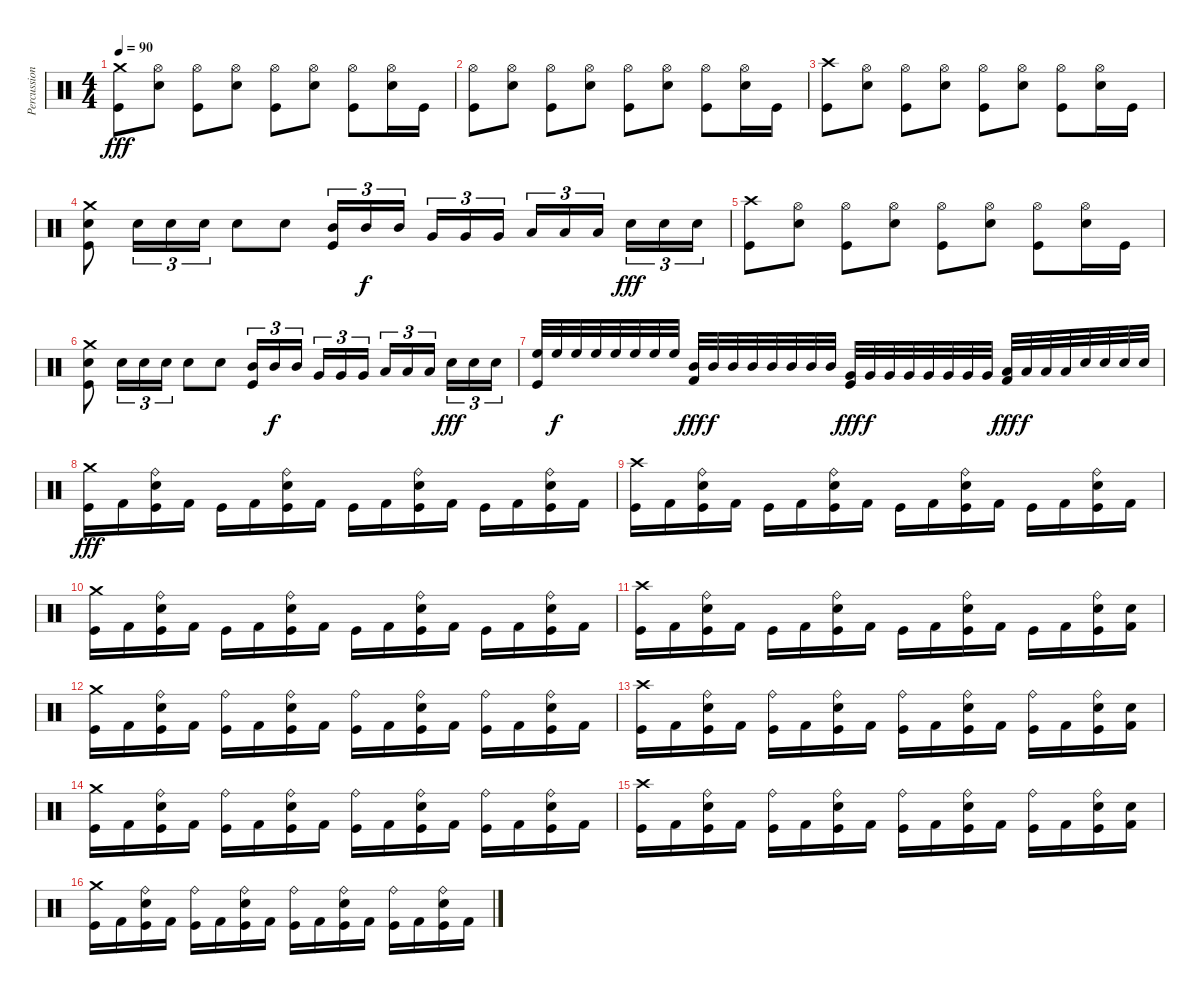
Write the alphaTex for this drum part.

\track ("Percussion" "Percussion") {instrument percussion}
\staff {score}
\articulation defaults
\ts (4 4)
\tempo 90
\clef neutral
\ks c
("Crash medium (hit)" "Kick (hit)").8{dy fff} ("Hi-Hat (open)" "Electric Snare (hit)").8 ("Hi-Hat (open)" "Kick (hit)").8 ("Hi-Hat (open)" "Electric Snare (hit)").8 ("Hi-Hat (open)" "Kick (hit)").8 ("Hi-Hat (open)" "Electric Snare (hit)").8 ("Hi-Hat (open)" "Kick (hit)").8 ("Hi-Hat (open)" "Electric Snare (hit)").16 "Kick (hit)".16 |
("Hi-Hat (open)" "Kick (hit)").8 ("Hi-Hat (open)" "Electric Snare (hit)").8 ("Hi-Hat (open)" "Kick (hit)").8 ("Hi-Hat (open)" "Electric Snare (hit)").8 ("Hi-Hat (open)" "Kick (hit)").8 ("Hi-Hat (open)" "Electric Snare (hit)").8 ("Hi-Hat (open)" "Kick (hit)").8 ("Hi-Hat (open)" "Electric Snare (hit)").16 "Kick (hit)".16 |
("Crash high (hit)" "Kick (hit)").8 ("Hi-Hat (open)" "Electric Snare (hit)").8 ("Hi-Hat (open)" "Kick (hit)").8 ("Hi-Hat (open)" "Electric Snare (hit)").8 ("Hi-Hat (open)" "Kick (hit)").8 ("Hi-Hat (open)" "Electric Snare (hit)").8 ("Hi-Hat (open)" "Kick (hit)").8 ("Hi-Hat (open)" "Electric Snare (hit)").16 "Kick (hit)".16 |
("Crash medium (hit)" "Electric Snare (hit)" "Kick (hit)").8 "Electric Snare (hit)".16{tu (3 2)} "Electric Snare (hit)".16{tu (3 2)} "Electric Snare (hit)".16{tu (3 2)} "Electric Snare (hit)".8 "Electric Snare (hit)".8 ("Mid Tom (hit)" "Kick (hit)").16{tu (3 2)} "Mid Tom (hit)".16{tu (3 2) dy f} "Mid Tom (hit)".16{tu (3 2)} "Very Low Tom (hit)".16{tu (3 2)} "Very Low Tom (hit)".16{tu (3 2)} "Very Low Tom (hit)".16{tu (3 2)} "Low Floor Tom (hit)".16{tu (3 2)} "Low Floor Tom (hit)".16{tu (3 2)} "Low Floor Tom (hit)".16{tu (3 2)} "Electric Snare (hit)".16{tu (3 2) dy fff} "Electric Snare (hit)".16{tu (3 2)} "Electric Snare (hit)".16{tu (3 2)} |
("Crash high (hit)" "Kick (hit)").8 ("Hi-Hat (open)" "Electric Snare (hit)").8 ("Hi-Hat (open)" "Kick (hit)").8 ("Hi-Hat (open)" "Electric Snare (hit)").8 ("Hi-Hat (open)" "Kick (hit)").8 ("Hi-Hat (open)" "Electric Snare (hit)").8 ("Hi-Hat (open)" "Kick (hit)").8 ("Hi-Hat (open)" "Electric Snare (hit)").16 "Kick (hit)".16 |
("Crash medium (hit)" "Electric Snare (hit)" "Kick (hit)").8 "Electric Snare (hit)".16{tu (3 2)} "Electric Snare (hit)".16{tu (3 2)} "Electric Snare (hit)".16{tu (3 2)} "Electric Snare (hit)".8 "Electric Snare (hit)".8 ("Mid Tom (hit)" "Kick (hit)").16{tu (3 2)} "Mid Tom (hit)".16{tu (3 2) dy f} "Mid Tom (hit)".16{tu (3 2)} "Very Low Tom (hit)".16{tu (3 2)} "Very Low Tom (hit)".16{tu (3 2)} "Very Low Tom (hit)".16{tu (3 2)} "Low Floor Tom (hit)".16{tu (3 2)} "Low Floor Tom (hit)".16{tu (3 2)} "Low Floor Tom (hit)".16{tu (3 2)} "Electric Snare (hit)".16{tu (3 2) dy fff} "Electric Snare (hit)".16{tu (3 2)} "Electric Snare (hit)".16{tu (3 2)} |
("High Floor Tom (hit)" "Kick (hit)").32 "High Floor Tom (hit)".32{dy f} "High Floor Tom (hit)".32 "High Floor Tom (hit)".32 "High Floor Tom (hit)".32 "High Floor Tom (hit)".32 "High Floor Tom (hit)".32 "High Floor Tom (hit)".32 ("Mid Tom (hit)" "Kick (hit) 2").32{dy fff} "Mid Tom (hit)".32{dy f} "Mid Tom (hit)".32 "Mid Tom (hit)".32 "Mid Tom (hit)".32 "Mid Tom (hit)".32 "Mid Tom (hit)".32 "Mid Tom (hit)".32 ("Very Low Tom (hit)" "Kick (hit)").32{dy fff} "Very Low Tom (hit)".32{dy f} "Very Low Tom (hit)".32 "Very Low Tom (hit)".32 "Very Low Tom (hit)".32 "Very Low Tom (hit)".32 "Very Low Tom (hit)".32 "Very Low Tom (hit)".32 ("Low Floor Tom (hit)" "Kick (hit) 2").32{dy fff} "Low Floor Tom (hit)".32{dy f} "Low Floor Tom (hit)".32 "Low Floor Tom (hit)".32 "Electric Snare (hit)".32 "Electric Snare (hit)".32 "Electric Snare (hit)".32 "Electric Snare (hit)".32 |
("Crash medium (hit)" "Kick (hit)").16{dy fff} "Kick (hit) 2".16 ("Ride (bell)" "Electric Snare (hit)" "Kick (hit)").16 "Kick (hit) 2".16 "Kick (hit)".16 "Kick (hit) 2".16 ("Ride (bell)" "Electric Snare (hit)" "Kick (hit)").16 "Kick (hit) 2".16 "Kick (hit)".16 "Kick (hit) 2".16 ("Ride (bell)" "Electric Snare (hit)" "Kick (hit)").16 "Kick (hit) 2".16 "Kick (hit)".16 "Kick (hit) 2".16 ("Ride (bell)" "Electric Snare (hit)" "Kick (hit)").16 "Kick (hit) 2".16 |
("Crash high (hit)" "Kick (hit)").16 "Kick (hit) 2".16 ("Ride (bell)" "Electric Snare (hit)" "Kick (hit)").16 "Kick (hit) 2".16 "Kick (hit)".16 "Kick (hit) 2".16 ("Ride (bell)" "Electric Snare (hit)" "Kick (hit)").16 "Kick (hit) 2".16 "Kick (hit)".16 "Kick (hit) 2".16 ("Ride (bell)" "Electric Snare (hit)" "Kick (hit)").16 "Kick (hit) 2".16 "Kick (hit)".16 "Kick (hit) 2".16 ("Ride (bell)" "Electric Snare (hit)" "Kick (hit)").16 "Kick (hit) 2".16 |
("Crash medium (hit)" "Kick (hit)").16 "Kick (hit) 2".16 ("Ride (bell)" "Electric Snare (hit)" "Kick (hit)").16 "Kick (hit) 2".16 "Kick (hit)".16 "Kick (hit) 2".16 ("Ride (bell)" "Electric Snare (hit)" "Kick (hit)").16 "Kick (hit) 2".16 "Kick (hit)".16 "Kick (hit) 2".16 ("Ride (bell)" "Electric Snare (hit)" "Kick (hit)").16 "Kick (hit) 2".16 "Kick (hit)".16 "Kick (hit) 2".16 ("Ride (bell)" "Electric Snare (hit)" "Kick (hit)").16 "Kick (hit) 2".16 |
("Crash high (hit)" "Kick (hit)").16 "Kick (hit) 2".16 ("Ride (bell)" "Electric Snare (hit)" "Kick (hit)").16 "Kick (hit) 2".16 "Kick (hit)".16 "Kick (hit) 2".16 ("Ride (bell)" "Electric Snare (hit)" "Kick (hit)").16 "Kick (hit) 2".16 "Kick (hit)".16 "Kick (hit) 2".16 ("Ride (bell)" "Electric Snare (hit)" "Kick (hit)").16 "Kick (hit) 2".16 "Kick (hit)".16 "Kick (hit) 2".16 ("Ride (bell)" "Electric Snare (hit)" "Kick (hit)").16 ("Electric Snare (hit)" "Kick (hit) 2").16 |
("Crash medium (hit)" "Kick (hit)").16 "Kick (hit) 2".16 ("Ride (bell)" "Electric Snare (hit)" "Kick (hit)").16 "Kick (hit) 2".16 ("Ride (bell)" "Kick (hit)").16 "Kick (hit) 2".16 ("Ride (bell)" "Electric Snare (hit)" "Kick (hit)").16 "Kick (hit) 2".16 ("Ride (bell)" "Kick (hit)").16 "Kick (hit) 2".16 ("Ride (bell)" "Electric Snare (hit)" "Kick (hit)").16 "Kick (hit) 2".16 ("Ride (bell)" "Kick (hit)").16 "Kick (hit) 2".16 ("Ride (bell)" "Electric Snare (hit)" "Kick (hit)").16 "Kick (hit) 2".16 |
("Crash high (hit)" "Kick (hit)").16 "Kick (hit) 2".16 ("Ride (bell)" "Electric Snare (hit)" "Kick (hit)").16 "Kick (hit) 2".16 ("Ride (bell)" "Kick (hit)").16 "Kick (hit) 2".16 ("Ride (bell)" "Electric Snare (hit)" "Kick (hit)").16 "Kick (hit) 2".16 ("Ride (bell)" "Kick (hit)").16 "Kick (hit) 2".16 ("Ride (bell)" "Electric Snare (hit)" "Kick (hit)").16 "Kick (hit) 2".16 ("Ride (bell)" "Kick (hit)").16 "Kick (hit) 2".16 ("Ride (bell)" "Electric Snare (hit)" "Kick (hit)").16 ("Electric Snare (hit)" "Kick (hit) 2").16 |
("Crash medium (hit)" "Kick (hit)").16 "Kick (hit) 2".16 ("Ride (bell)" "Electric Snare (hit)" "Kick (hit)").16 "Kick (hit) 2".16 ("Ride (bell)" "Kick (hit)").16 "Kick (hit) 2".16 ("Ride (bell)" "Electric Snare (hit)" "Kick (hit)").16 "Kick (hit) 2".16 ("Ride (bell)" "Kick (hit)").16 "Kick (hit) 2".16 ("Ride (bell)" "Electric Snare (hit)" "Kick (hit)").16 "Kick (hit) 2".16 ("Ride (bell)" "Kick (hit)").16 "Kick (hit) 2".16 ("Ride (bell)" "Electric Snare (hit)" "Kick (hit)").16 "Kick (hit) 2".16 |
("Crash high (hit)" "Kick (hit)").16 "Kick (hit) 2".16 ("Ride (bell)" "Electric Snare (hit)" "Kick (hit)").16 "Kick (hit) 2".16 ("Ride (bell)" "Kick (hit)").16 "Kick (hit) 2".16 ("Ride (bell)" "Electric Snare (hit)" "Kick (hit)").16 "Kick (hit) 2".16 ("Ride (bell)" "Kick (hit)").16 "Kick (hit) 2".16 ("Ride (bell)" "Electric Snare (hit)" "Kick (hit)").16 "Kick (hit) 2".16 ("Ride (bell)" "Kick (hit)").16 "Kick (hit) 2".16 ("Ride (bell)" "Electric Snare (hit)" "Kick (hit)").16 ("Electric Snare (hit)" "Kick (hit) 2").16 |
("Crash medium (hit)" "Kick (hit)").16 "Kick (hit) 2".16 ("Ride (bell)" "Electric Snare (hit)" "Kick (hit)").16 "Kick (hit) 2".16 ("Ride (bell)" "Kick (hit)").16 "Kick (hit) 2".16 ("Ride (bell)" "Electric Snare (hit)" "Kick (hit)").16 "Kick (hit) 2".16 ("Ride (bell)" "Kick (hit)").16 "Kick (hit) 2".16 ("Ride (bell)" "Electric Snare (hit)" "Kick (hit)").16 "Kick (hit) 2".16 ("Ride (bell)" "Kick (hit)").16 "Kick (hit) 2".16 ("Ride (bell)" "Electric Snare (hit)" "Kick (hit)").16 "Kick (hit) 2".16
